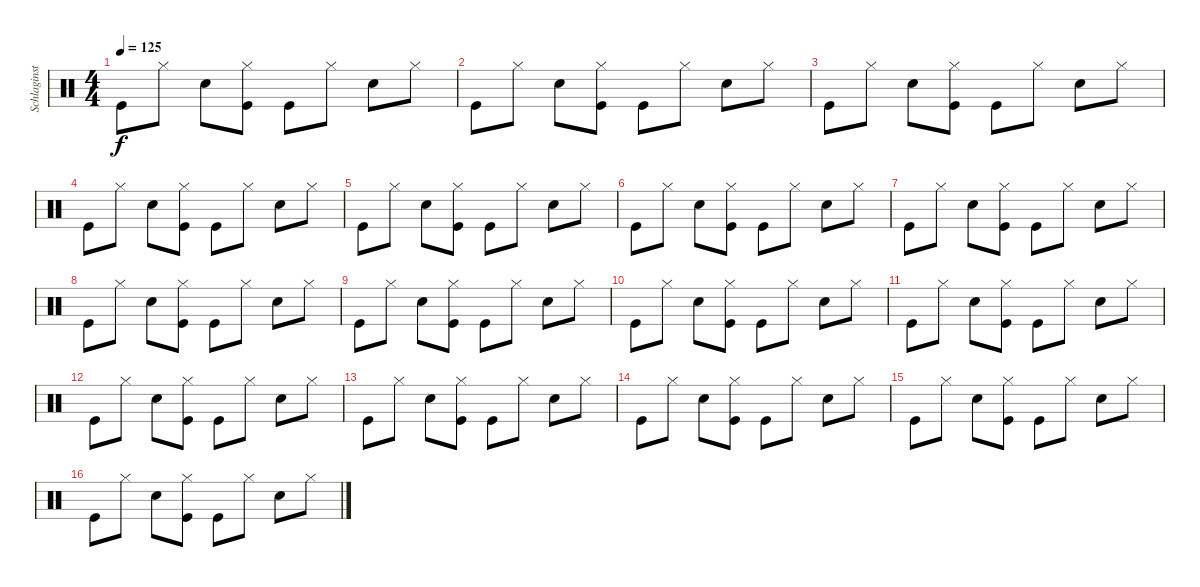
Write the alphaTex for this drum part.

\track ("Schlaginstrumente - Auswahl" "Schlaginst") {instrument percussion}
\staff {score}
\articulation defaults
\ts (4 4)
\tempo 125
\clef neutral
\ks c "Kick (hit)".8{dy f} "Hi-Hat (closed)".8 "Snare (hit) 2".8
("Hi-Hat (closed)" "Kick (hit)").8 "Kick (hit)".8 "Hi-Hat (closed)".8 "Snare (hit) 2".8 "Hi-Hat (closed)".8 |
"Kick (hit)".8 "Hi-Hat (closed)".8 "Snare (hit) 2".8 ("Hi-Hat (closed)" "Kick (hit)").8 "Kick (hit)".8 "Hi-Hat (closed)".8 "Snare (hit) 2".8 "Hi-Hat (closed)".8 |
"Kick (hit)".8 "Hi-Hat (closed)".8 "Snare (hit) 2".8 ("Hi-Hat (closed)" "Kick (hit)").8 "Kick (hit)".8 "Hi-Hat (closed)".8 "Snare (hit) 2".8 "Hi-Hat (closed)".8 |
"Kick (hit)".8 "Hi-Hat (closed)".8 "Snare (hit) 2".8 ("Hi-Hat (closed)" "Kick (hit)").8 "Kick (hit)".8 "Hi-Hat (closed)".8 "Snare (hit) 2".8 "Hi-Hat (closed)".8 |
"Kick (hit)".8 "Hi-Hat (closed)".8 "Snare (hit) 2".8 ("Hi-Hat (closed)" "Kick (hit)").8 "Kick (hit)".8 "Hi-Hat (closed)".8 "Snare (hit) 2".8 "Hi-Hat (closed)".8 |
"Kick (hit)".8 "Hi-Hat (closed)".8 "Snare (hit) 2".8 ("Hi-Hat (closed)" "Kick (hit)").8 "Kick (hit)".8 "Hi-Hat (closed)".8 "Snare (hit) 2".8 "Hi-Hat (closed)".8 |
"Kick (hit)".8 "Hi-Hat (closed)".8 "Snare (hit) 2".8 ("Hi-Hat (closed)" "Kick (hit)").8 "Kick (hit)".8 "Hi-Hat (closed)".8 "Snare (hit) 2".8 "Hi-Hat (closed)".8 |
"Kick (hit)".8 "Hi-Hat (closed)".8 "Snare (hit) 2".8 ("Hi-Hat (closed)" "Kick (hit)").8 "Kick (hit)".8 "Hi-Hat (closed)".8 "Snare (hit) 2".8 "Hi-Hat (closed)".8 |
"Kick (hit)".8 "Hi-Hat (closed)".8 "Snare (hit) 2".8 ("Hi-Hat (closed)" "Kick (hit)").8 "Kick (hit)".8 "Hi-Hat (closed)".8 "Snare (hit) 2".8 "Hi-Hat (closed)".8 |
"Kick (hit)".8 "Hi-Hat (closed)".8 "Snare (hit) 2".8 ("Hi-Hat (closed)" "Kick (hit)").8 "Kick (hit)".8 "Hi-Hat (closed)".8 "Snare (hit) 2".8 "Hi-Hat (closed)".8 |
"Kick (hit)".8 "Hi-Hat (closed)".8 "Snare (hit) 2".8 ("Hi-Hat (closed)" "Kick (hit)").8 "Kick (hit)".8 "Hi-Hat (closed)".8 "Snare (hit) 2".8 "Hi-Hat (closed)".8 |
"Kick (hit)".8 "Hi-Hat (closed)".8 "Snare (hit) 2".8 ("Hi-Hat (closed)" "Kick (hit)").8 "Kick (hit)".8 "Hi-Hat (closed)".8 "Snare (hit) 2".8 "Hi-Hat (closed)".8 |
"Kick (hit)".8 "Hi-Hat (closed)".8 "Snare (hit) 2".8 ("Hi-Hat (closed)" "Kick (hit)").8 "Kick (hit)".8 "Hi-Hat (closed)".8 "Snare (hit) 2".8 "Hi-Hat (closed)".8 |
"Kick (hit)".8 "Hi-Hat (closed)".8 "Snare (hit) 2".8 ("Hi-Hat (closed)" "Kick (hit)").8 "Kick (hit)".8 "Hi-Hat (closed)".8 "Snare (hit) 2".8 "Hi-Hat (closed)".8 |
"Kick (hit)".8 "Hi-Hat (closed)".8 "Snare (hit) 2".8 ("Hi-Hat (closed)" "Kick (hit)").8 "Kick (hit)".8 "Hi-Hat (closed)".8 "Snare (hit) 2".8 "Hi-Hat (closed)".8 |
"Kick (hit)".8 "Hi-Hat (closed)".8 "Snare (hit) 2".8 ("Hi-Hat (closed)" "Kick (hit)").8 "Kick (hit)".8 "Hi-Hat (closed)".8 "Snare (hit) 2".8 "Hi-Hat (closed)".8
